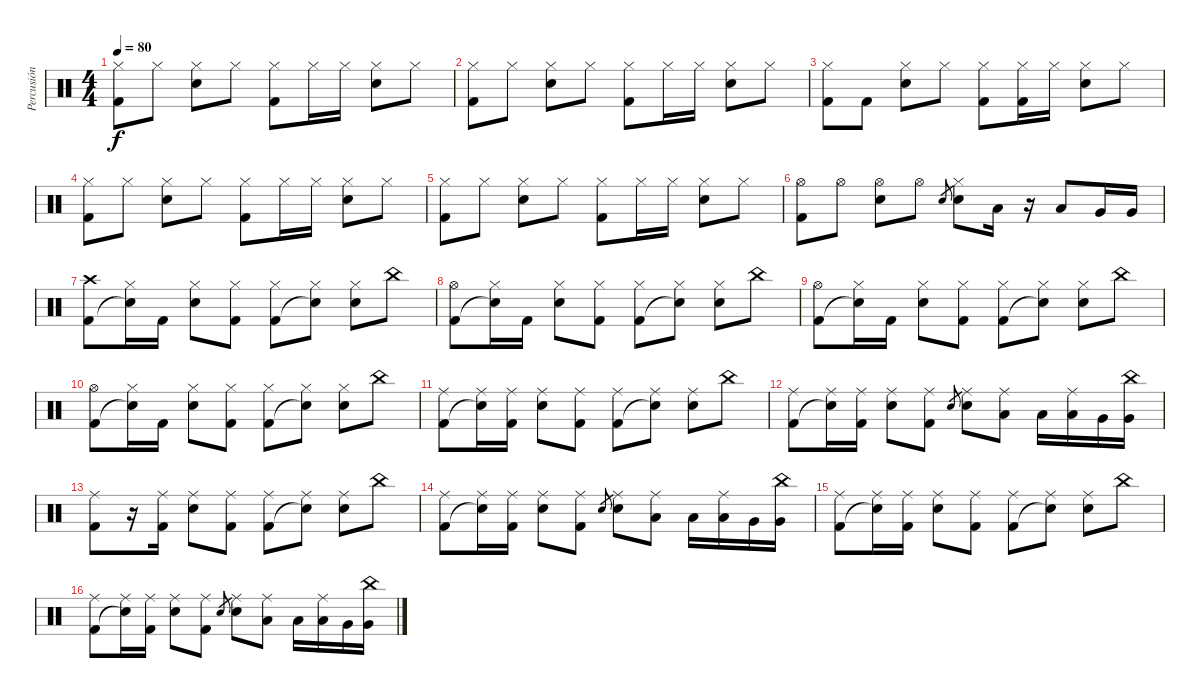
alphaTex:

\track ("Percusión" "Percusión") {instrument percussion}
\staff {score}
\articulation defaults
\ts (4 4)
\tempo 80
\clef neutral
\ks c
("Kick (hit) 2" "Hi-Hat (closed)").8{dy f} "Hi-Hat (closed)".8 ("Electric Snare (hit)" "Hi-Hat (closed)").8 "Hi-Hat (closed)".8 ("Kick (hit) 2" "Hi-Hat (closed)").8 "Hi-Hat (closed)".16 "Hi-Hat (closed)".16 ("Electric Snare (hit)" "Hi-Hat (closed)").8 "Hi-Hat (closed)".8 |
("Kick (hit) 2" "Hi-Hat (closed)").8 "Hi-Hat (closed)".8 ("Electric Snare (hit)" "Hi-Hat (closed)").8 "Hi-Hat (closed)".8 ("Kick (hit) 2" "Hi-Hat (closed)").8 "Hi-Hat (closed)".16 "Hi-Hat (closed)".16 ("Electric Snare (hit)" "Hi-Hat (closed)").8 "Hi-Hat (closed)".8 |
("Kick (hit) 2" "Hi-Hat (closed)").8 "Kick (hit) 2".8 ("Electric Snare (hit)" "Hi-Hat (closed)").8 "Hi-Hat (closed)".8 ("Kick (hit) 2" "Hi-Hat (closed)").8 ("Kick (hit) 2" "Hi-Hat (closed)").16 "Hi-Hat (closed)".16 ("Electric Snare (hit)" "Hi-Hat (closed)").8 "Hi-Hat (closed)".8 |
("Kick (hit) 2" "Hi-Hat (closed)").8 "Hi-Hat (closed)".8 ("Electric Snare (hit)" "Hi-Hat (closed)").8 "Hi-Hat (closed)".8 ("Kick (hit) 2" "Hi-Hat (closed)").8 "Hi-Hat (closed)".16 "Hi-Hat (closed)".16 ("Electric Snare (hit)" "Hi-Hat (closed)").8 "Hi-Hat (closed)".8 |
("Kick (hit) 2" "Hi-Hat (closed)").8 "Hi-Hat (closed)".8 ("Electric Snare (hit)" "Hi-Hat (closed)").8 "Hi-Hat (closed)".8 ("Kick (hit) 2" "Hi-Hat (closed)").8 "Hi-Hat (closed)".16 "Hi-Hat (closed)".16 ("Electric Snare (hit)" "Hi-Hat (closed)").8 "Hi-Hat (closed)".8 |
("Kick (hit) 2" "Hi-Hat (open)").8 "Hi-Hat (open)".8 ("Electric Snare (hit)" "Hi-Hat (open)").8 "Hi-Hat (open)".8 "Electric Snare (hit)".8{gr} ("Electric Snare (hit)" "Hi-Hat (closed)").8 "Low Tom (hit)".16 r.16 "Low Tom (hit)".8 "Very Low Tom (hit)".16 "Very Low Tom (hit)".16 |
("Kick (hit) 2" "Crash high (hit)").8 ("Snare (hit)"{t} "Hi-Hat (closed)").16 "Kick (hit) 2".16 ("Electric Snare (hit)" "Hi-Hat (closed)").8 ("Kick (hit) 2" "Hi-Hat (closed)").8 ("Kick (hit) 2" "Hi-Hat (closed)").8 ("Snare (hit)"{t} "Hi-Hat (closed)").8 ("Electric Snare (hit)" "Hi-Hat (closed)").8 "China (hit)".8 |
("Kick (hit) 2" "Hi-Hat (open)").8 ("Snare (hit)"{t} "Hi-Hat (closed)").16 "Kick (hit) 2".16 ("Electric Snare (hit)" "Hi-Hat (closed)").8 ("Kick (hit) 2" "Hi-Hat (closed)").8 ("Kick (hit) 2" "Hi-Hat (closed)").8 ("Snare (hit)"{t} "Hi-Hat (closed)").8 ("Electric Snare (hit)" "Hi-Hat (closed)").8 "China (hit)".8 |
("Kick (hit) 2" "Hi-Hat (open)").8 ("Snare (hit)"{t} "Hi-Hat (closed)").16 "Kick (hit) 2".16 ("Electric Snare (hit)" "Hi-Hat (closed)").8 ("Kick (hit) 2" "Hi-Hat (closed)").8 ("Kick (hit) 2" "Hi-Hat (closed)").8 ("Snare (hit)"{t} "Hi-Hat (closed)").8 ("Electric Snare (hit)" "Hi-Hat (closed)").8 "China (hit)".8 |
("Kick (hit) 2" "Hi-Hat (open)").8 ("Snare (hit)"{t} "Hi-Hat (closed)").16 "Kick (hit) 2".16 ("Electric Snare (hit)" "Hi-Hat (closed)").8 ("Kick (hit) 2" "Hi-Hat (closed)").8 ("Kick (hit) 2" "Hi-Hat (closed)").8 ("Snare (hit)"{t} "Hi-Hat (closed)").8 ("Electric Snare (hit)" "Hi-Hat (closed)").8 "China (hit)".8 |
("Kick (hit) 2" "Ride (middle)").8 ("Snare (hit)"{t} "Ride (middle)").16 ("Kick (hit) 2" "Ride (middle)").16 ("Electric Snare (hit)" "Ride (middle)").8 ("Kick (hit) 2" "Ride (middle)").8 ("Kick (hit) 2" "Ride (middle)").8 ("Snare (hit)"{t} "Ride (middle)").8 ("Electric Snare (hit)" "Ride (middle)").8 "China (hit)".8 |
("Kick (hit) 2" "Ride (middle)").8 ("Snare (hit)"{t} "Ride (middle)").16 ("Kick (hit) 2" "Ride (middle)").16 ("Electric Snare (hit)" "Ride (middle)").8 ("Kick (hit) 2" "Ride (middle)").8 "Electric Snare (hit)".8{gr} ("Electric Snare (hit)" "Ride (middle)").8 ("Low Tom (hit)" "Ride (middle)").8 "Low Tom (hit)".16 ("Low Tom (hit)" "Ride (middle)").16 "Very Low Tom (hit)".16 ("Very Low Tom (hit)" "China (hit)").16 |
("Kick (hit) 2" "Ride (middle)").8 r.16 ("Kick (hit) 2" "Ride (middle)").16 ("Electric Snare (hit)" "Ride (middle)").8 ("Kick (hit) 2" "Ride (middle)").8 ("Kick (hit) 2" "Ride (middle)").8 ("Snare (hit)"{t} "Ride (middle)").8 ("Electric Snare (hit)" "Ride (middle)").8 "China (hit)".8 |
("Kick (hit) 2" "Ride (middle)").8 ("Snare (hit)"{t} "Ride (middle)").16 ("Kick (hit) 2" "Ride (middle)").16 ("Electric Snare (hit)" "Ride (middle)").8 ("Kick (hit) 2" "Ride (middle)").8 "Electric Snare (hit)".8{gr} ("Electric Snare (hit)" "Ride (middle)").8 ("Low Tom (hit)" "Ride (middle)").8 "Low Tom (hit)".16 ("Low Tom (hit)" "Ride (middle)").16 "Very Low Tom (hit)".16 ("Very Low Tom (hit)" "China (hit)").16 |
("Kick (hit) 2" "Ride (middle)").8 ("Snare (hit)"{t} "Ride (middle)").16 ("Kick (hit) 2" "Ride (middle)").16 ("Electric Snare (hit)" "Ride (middle)").8 ("Kick (hit) 2" "Ride (middle)").8 ("Kick (hit) 2" "Ride (middle)").8 ("Snare (hit)"{t} "Ride (middle)").8 ("Electric Snare (hit)" "Ride (middle)").8 "China (hit)".8 |
("Kick (hit) 2" "Ride (middle)").8 ("Snare (hit)"{t} "Ride (middle)").16 ("Kick (hit) 2" "Ride (middle)").16 ("Electric Snare (hit)" "Ride (middle)").8 ("Kick (hit) 2" "Ride (middle)").8 "Electric Snare (hit)".8{gr} ("Electric Snare (hit)" "Ride (middle)").8 ("Low Tom (hit)" "Ride (middle)").8 "Low Tom (hit)".16 ("Low Tom (hit)" "Ride (middle)").16 "Very Low Tom (hit)".16 ("Very Low Tom (hit)" "China (hit)").16
